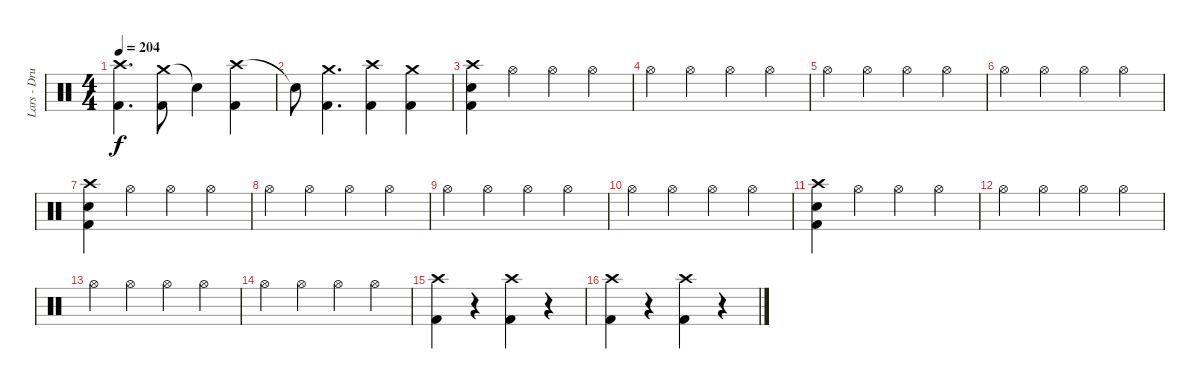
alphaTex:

\track ("Lars - Drums" "Lars - Dru") {instrument percussion}
\staff {score}
\articulation defaults
\ts (4 4)
\tempo 204
\clef neutral
\ks c
("Crash high (hit)" "Kick (hit) 2").4{d dy f} ("Crash medium (hit)" "Kick (hit) 2").8 "Snare (hit)"{t}.4 ("Crash high (hit)" "Kick (hit) 2").4 |
"Snare (hit)"{t}.8 ("Crash medium (hit)" "Kick (hit) 2").4{d} ("Crash high (hit)" "Kick (hit) 2").4 ("Crash medium (hit)" "Kick (hit) 2").4 |
("Crash high (hit)" "Electric Snare (hit)" "Kick (hit) 2").4 "Hi-Hat (open)".4 "Hi-Hat (open)".4 "Hi-Hat (open)".4 |
"Hi-Hat (open)".4 "Hi-Hat (open)".4 "Hi-Hat (open)".4 "Hi-Hat (open)".4 |
"Hi-Hat (open)".4 "Hi-Hat (open)".4 "Hi-Hat (open)".4 "Hi-Hat (open)".4 |
"Hi-Hat (open)".4 "Hi-Hat (open)".4 "Hi-Hat (open)".4 "Hi-Hat (open)".4 |
("Crash high (hit)" "Electric Snare (hit)" "Kick (hit) 2").4 "Hi-Hat (open)".4 "Hi-Hat (open)".4 "Hi-Hat (open)".4 |
"Hi-Hat (open)".4 "Hi-Hat (open)".4 "Hi-Hat (open)".4 "Hi-Hat (open)".4 |
"Hi-Hat (open)".4 "Hi-Hat (open)".4 "Hi-Hat (open)".4 "Hi-Hat (open)".4 |
"Hi-Hat (open)".4 "Hi-Hat (open)".4 "Hi-Hat (open)".4 "Hi-Hat (open)".4 |
("Crash high (hit)" "Electric Snare (hit)" "Kick (hit) 2").4 "Hi-Hat (open)".4 "Hi-Hat (open)".4 "Hi-Hat (open)".4 |
"Hi-Hat (open)".4 "Hi-Hat (open)".4 "Hi-Hat (open)".4 "Hi-Hat (open)".4 |
"Hi-Hat (open)".4 "Hi-Hat (open)".4 "Hi-Hat (open)".4 "Hi-Hat (open)".4 |
"Hi-Hat (open)".4 "Hi-Hat (open)".4 "Hi-Hat (open)".4 "Hi-Hat (open)".4 |
("Crash high (hit)" "Kick (hit) 2").4 r.4 ("Crash high (hit)" "Kick (hit) 2").4 r.4 |
("Crash high (hit)" "Kick (hit) 2").4 r.4 ("Crash high (hit)" "Kick (hit) 2").4 r.4
